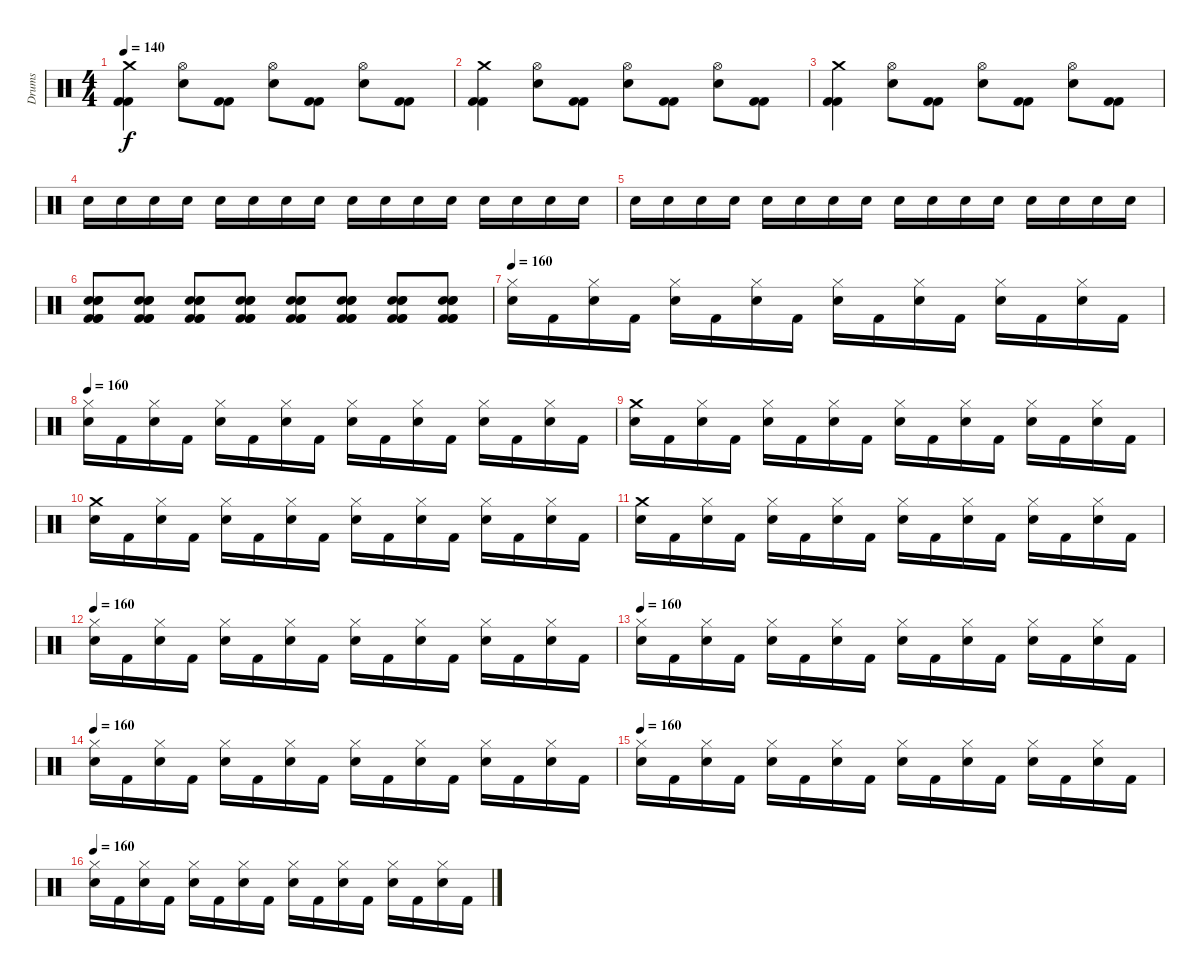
\track ("Drums" "Drums") {instrument percussion}
\staff {score}
\articulation defaults
\ts (4 4)
\tempo 140
\clef neutral
\ks c
("Crash medium (hit)" "Kick (hit) 2" "Kick (hit) 2").4{dy f} ("Hi-Hat (open)" "Electric Snare (hit)").8 ("Kick (hit) 2" "Kick (hit) 2").8 ("Hi-Hat (open)" "Electric Snare (hit)").8 ("Kick (hit) 2" "Kick (hit) 2").8 ("Hi-Hat (open)" "Electric Snare (hit)").8 ("Kick (hit) 2" "Kick (hit) 2").8 |
("Crash medium (hit)" "Kick (hit) 2" "Kick (hit) 2").4 ("Hi-Hat (open)" "Electric Snare (hit)").8 ("Kick (hit) 2" "Kick (hit) 2").8 ("Hi-Hat (open)" "Electric Snare (hit)").8 ("Kick (hit) 2" "Kick (hit) 2").8 ("Hi-Hat (open)" "Electric Snare (hit)").8 ("Kick (hit) 2" "Kick (hit) 2").8 |
("Crash medium (hit)" "Kick (hit) 2" "Kick (hit) 2").4 ("Hi-Hat (open)" "Electric Snare (hit)").8 ("Kick (hit) 2" "Kick (hit) 2").8 ("Hi-Hat (open)" "Electric Snare (hit)").8 ("Kick (hit) 2" "Kick (hit) 2").8 ("Hi-Hat (open)" "Electric Snare (hit)").8 ("Kick (hit) 2" "Kick (hit) 2").8 |
"Electric Snare (hit)".16 "Electric Snare (hit)".16 "Electric Snare (hit)".16 "Electric Snare (hit)".16 "Electric Snare (hit)".16 "Electric Snare (hit)".16 "Electric Snare (hit)".16 "Electric Snare (hit)".16 "Electric Snare (hit)".16 "Electric Snare (hit)".16 "Electric Snare (hit)".16 "Electric Snare (hit)".16 "Electric Snare (hit)".16 "Electric Snare (hit)".16 "Electric Snare (hit)".16 "Electric Snare (hit)".16 |
"Electric Snare (hit)".16 "Electric Snare (hit)".16 "Electric Snare (hit)".16 "Electric Snare (hit)".16 "Electric Snare (hit)".16 "Electric Snare (hit)".16 "Electric Snare (hit)".16 "Electric Snare (hit)".16 "Electric Snare (hit)".16 "Electric Snare (hit)".16 "Electric Snare (hit)".16 "Electric Snare (hit)".16 "Electric Snare (hit)".16 "Electric Snare (hit)".16 "Electric Snare (hit)".16 "Electric Snare (hit)".16 |
("Kick (hit) 2" "Kick (hit) 2" "Kick (hit) 2" "Electric Snare (hit)" "Electric Snare (hit)" "Electric Snare (hit)").8 ("Electric Snare (hit)" "Electric Snare (hit)" "Electric Snare (hit)" "Kick (hit) 2" "Kick (hit) 2" "Kick (hit) 2").8 ("Electric Snare (hit)" "Electric Snare (hit)" "Electric Snare (hit)" "Kick (hit) 2" "Kick (hit) 2" "Kick (hit) 2").8 ("Kick (hit) 2" "Kick (hit) 2" "Kick (hit) 2" "Electric Snare (hit)" "Electric Snare (hit)" "Electric Snare (hit)").8 ("Kick (hit) 2" "Kick (hit) 2" "Kick (hit) 2" "Electric Snare (hit)" "Electric Snare (hit)" "Electric Snare (hit)").8 ("Electric Snare (hit)" "Electric Snare (hit)" "Kick (hit) 2" "Kick (hit) 2" "Electric Snare (hit)" "Kick (hit) 2").8 ("Electric Snare (hit)" "Electric Snare (hit)" "Kick (hit) 2" "Kick (hit) 2" "Kick (hit) 2" "Electric Snare (hit)").8 ("Kick (hit) 2" "Kick (hit) 2" "Kick (hit) 2" "Electric Snare (hit)" "Electric Snare (hit)" "Electric Snare (hit)").8 |
\tempo 160
("Hi-Hat (closed)" "Electric Snare (hit)").16 "Kick (hit) 2".16 ("Electric Snare (hit)" "Hi-Hat (closed)").16 "Kick (hit) 2".16 ("Hi-Hat (closed)" "Electric Snare (hit)").16 "Kick (hit) 2".16 ("Electric Snare (hit)" "Hi-Hat (closed)").16 "Kick (hit) 2".16 ("Hi-Hat (closed)" "Electric Snare (hit)").16 "Kick (hit) 2".16 ("Hi-Hat (closed)" "Electric Snare (hit)").16 "Kick (hit) 2".16 ("Electric Snare (hit)" "Hi-Hat (closed)").16 "Kick (hit) 2".16 ("Hi-Hat (closed)" "Electric Snare (hit)").16 "Kick (hit) 2".16 |
\tempo 160
("Hi-Hat (closed)" "Electric Snare (hit)").16 "Kick (hit) 2".16 ("Electric Snare (hit)" "Hi-Hat (closed)").16 "Kick (hit) 2".16 ("Hi-Hat (closed)" "Electric Snare (hit)").16 "Kick (hit) 2".16 ("Electric Snare (hit)" "Hi-Hat (closed)").16 "Kick (hit) 2".16 ("Hi-Hat (closed)" "Electric Snare (hit)").16 "Kick (hit) 2".16 ("Hi-Hat (closed)" "Electric Snare (hit)").16 "Kick (hit) 2".16 ("Electric Snare (hit)" "Hi-Hat (closed)").16 "Kick (hit) 2".16 ("Hi-Hat (closed)" "Electric Snare (hit)").16 "Kick (hit) 2".16 |
("Crash medium (hit)" "Electric Snare (hit)").16 "Kick (hit) 2".16 ("Electric Snare (hit)" "Hi-Hat (closed)").16 "Kick (hit) 2".16 ("Hi-Hat (closed)" "Electric Snare (hit)").16 "Kick (hit) 2".16 ("Electric Snare (hit)" "Hi-Hat (closed)").16 "Kick (hit) 2".16 ("Hi-Hat (closed)" "Electric Snare (hit)").16 "Kick (hit) 2".16 ("Hi-Hat (closed)" "Electric Snare (hit)").16 "Kick (hit) 2".16 ("Electric Snare (hit)" "Hi-Hat (closed)").16 "Kick (hit) 2".16 ("Hi-Hat (closed)" "Electric Snare (hit)").16 "Kick (hit) 2".16 |
("Crash medium (hit)" "Electric Snare (hit)").16 "Kick (hit) 2".16 ("Electric Snare (hit)" "Hi-Hat (closed)").16 "Kick (hit) 2".16 ("Hi-Hat (closed)" "Electric Snare (hit)").16 "Kick (hit) 2".16 ("Electric Snare (hit)" "Hi-Hat (closed)").16 "Kick (hit) 2".16 ("Hi-Hat (closed)" "Electric Snare (hit)").16 "Kick (hit) 2".16 ("Hi-Hat (closed)" "Electric Snare (hit)").16 "Kick (hit) 2".16 ("Electric Snare (hit)" "Hi-Hat (closed)").16 "Kick (hit) 2".16 ("Hi-Hat (closed)" "Electric Snare (hit)").16 "Kick (hit) 2".16 |
("Crash medium (hit)" "Electric Snare (hit)").16 "Kick (hit) 2".16 ("Electric Snare (hit)" "Hi-Hat (closed)").16 "Kick (hit) 2".16 ("Hi-Hat (closed)" "Electric Snare (hit)").16 "Kick (hit) 2".16 ("Electric Snare (hit)" "Hi-Hat (closed)").16 "Kick (hit) 2".16 ("Hi-Hat (closed)" "Electric Snare (hit)").16 "Kick (hit) 2".16 ("Hi-Hat (closed)" "Electric Snare (hit)").16 "Kick (hit) 2".16 ("Electric Snare (hit)" "Hi-Hat (closed)").16 "Kick (hit) 2".16 ("Hi-Hat (closed)" "Electric Snare (hit)").16 "Kick (hit) 2".16 |
\tempo 160
("Hi-Hat (closed)" "Electric Snare (hit)").16 "Kick (hit) 2".16 ("Electric Snare (hit)" "Hi-Hat (closed)").16 "Kick (hit) 2".16 ("Hi-Hat (closed)" "Electric Snare (hit)").16 "Kick (hit) 2".16 ("Electric Snare (hit)" "Hi-Hat (closed)").16 "Kick (hit) 2".16 ("Hi-Hat (closed)" "Electric Snare (hit)").16 "Kick (hit) 2".16 ("Hi-Hat (closed)" "Electric Snare (hit)").16 "Kick (hit) 2".16 ("Electric Snare (hit)" "Hi-Hat (closed)").16 "Kick (hit) 2".16 ("Hi-Hat (closed)" "Electric Snare (hit)").16 "Kick (hit) 2".16 |
\tempo 160
("Hi-Hat (closed)" "Electric Snare (hit)").16 "Kick (hit) 2".16 ("Electric Snare (hit)" "Hi-Hat (closed)").16 "Kick (hit) 2".16 ("Hi-Hat (closed)" "Electric Snare (hit)").16 "Kick (hit) 2".16 ("Electric Snare (hit)" "Hi-Hat (closed)").16 "Kick (hit) 2".16 ("Hi-Hat (closed)" "Electric Snare (hit)").16 "Kick (hit) 2".16 ("Hi-Hat (closed)" "Electric Snare (hit)").16 "Kick (hit) 2".16 ("Electric Snare (hit)" "Hi-Hat (closed)").16 "Kick (hit) 2".16 ("Hi-Hat (closed)" "Electric Snare (hit)").16 "Kick (hit) 2".16 |
\tempo 160
("Hi-Hat (closed)" "Electric Snare (hit)").16 "Kick (hit) 2".16 ("Electric Snare (hit)" "Hi-Hat (closed)").16 "Kick (hit) 2".16 ("Hi-Hat (closed)" "Electric Snare (hit)").16 "Kick (hit) 2".16 ("Electric Snare (hit)" "Hi-Hat (closed)").16 "Kick (hit) 2".16 ("Hi-Hat (closed)" "Electric Snare (hit)").16 "Kick (hit) 2".16 ("Hi-Hat (closed)" "Electric Snare (hit)").16 "Kick (hit) 2".16 ("Electric Snare (hit)" "Hi-Hat (closed)").16 "Kick (hit) 2".16 ("Hi-Hat (closed)" "Electric Snare (hit)").16 "Kick (hit) 2".16 |
\tempo 160
("Hi-Hat (closed)" "Electric Snare (hit)").16 "Kick (hit) 2".16 ("Electric Snare (hit)" "Hi-Hat (closed)").16 "Kick (hit) 2".16 ("Hi-Hat (closed)" "Electric Snare (hit)").16 "Kick (hit) 2".16 ("Electric Snare (hit)" "Hi-Hat (closed)").16 "Kick (hit) 2".16 ("Hi-Hat (closed)" "Electric Snare (hit)").16 "Kick (hit) 2".16 ("Hi-Hat (closed)" "Electric Snare (hit)").16 "Kick (hit) 2".16 ("Electric Snare (hit)" "Hi-Hat (closed)").16 "Kick (hit) 2".16 ("Hi-Hat (closed)" "Electric Snare (hit)").16 "Kick (hit) 2".16 |
\tempo 160
("Hi-Hat (closed)" "Electric Snare (hit)").16 "Kick (hit) 2".16 ("Electric Snare (hit)" "Hi-Hat (closed)").16 "Kick (hit) 2".16 ("Hi-Hat (closed)" "Electric Snare (hit)").16 "Kick (hit) 2".16 ("Electric Snare (hit)" "Hi-Hat (closed)").16 "Kick (hit) 2".16 ("Hi-Hat (closed)" "Electric Snare (hit)").16 "Kick (hit) 2".16 ("Hi-Hat (closed)" "Electric Snare (hit)").16 "Kick (hit) 2".16 ("Electric Snare (hit)" "Hi-Hat (closed)").16 "Kick (hit) 2".16 ("Hi-Hat (closed)" "Electric Snare (hit)").16 "Kick (hit) 2".16
